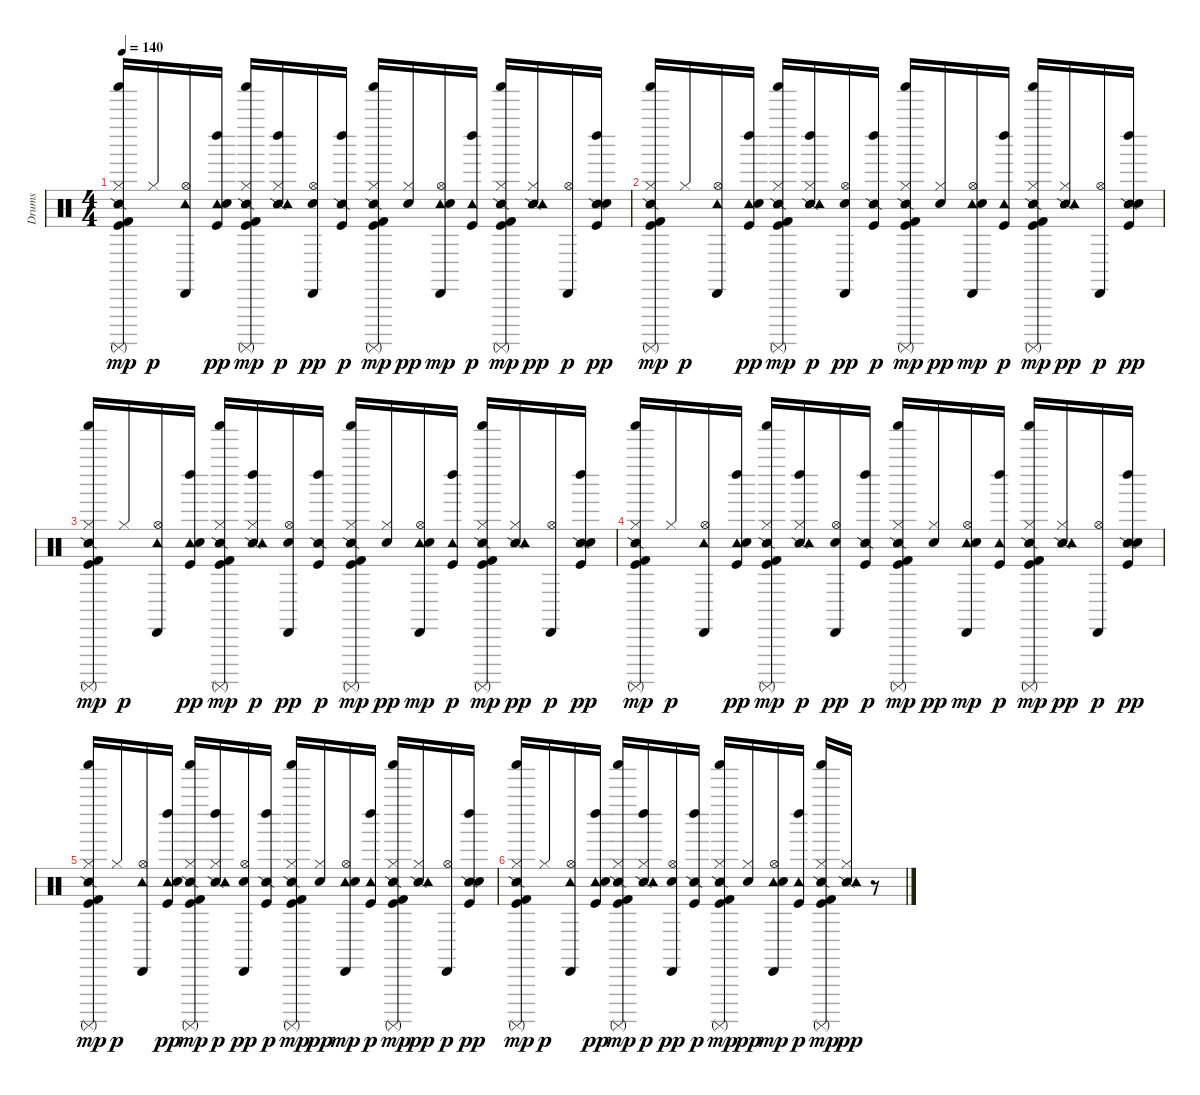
\track ("Drums" "Drums") {instrument percussion}
\staff {score}
\articulation defaults
\ts (4 4)
\tempo 140
\clef neutral
\ks c
("Snare (side stick) 2" "Kick (hit)" "Kick (hit) 2" "Hi-Hat (closed)" "Shaker (hit)" "Surdo (mute)").16{dy mp} "Hi-Hat (closed)".16{dy p} ("Hi-Hat (open)" "Tambourine (hit)" "Cabasa (hit)").16 ("Kick (hit)" "Tambourine (hit)" "Left Maraca (hit)" "Electric Snare (hit)").16{dy pp} ("Snare (side stick) 2" "Kick (hit)" "Kick (hit) 2" "Hi-Hat (closed)" "Shaker (hit)" "Surdo (mute)").16{dy mp} ("Snare (side stick) 2" "Hi-Hat (closed)" "Tambourine (hit)" "Left Maraca (hit)").16{dy p} ("Hi-Hat (open)" "Cabasa (hit)" "Snare (hit) 2").16{dy pp} ("Snare (side stick) 2" "Kick (hit)" "Left Maraca (hit)").16{dy p} ("Snare (side stick) 2" "Kick (hit)" "Kick (hit) 2" "Hi-Hat (closed)" "Shaker (hit)" "Surdo (mute)").16{dy mp} ("Hi-Hat (closed)" "Electric Snare (hit)").16{dy pp} ("Hi-Hat (open)" "Tambourine (hit)" "Cabasa (hit)" "Snare (hit) 2").16{dy mp} ("Kick (hit)" "Tambourine (hit)" "Left Maraca (hit)").16{dy p} ("Snare (side stick) 2" "Kick (hit)" "Kick (hit) 2" "Hi-Hat (closed)" "Shaker (hit)" "Surdo (mute)").16{dy mp} ("Snare (side stick) 2" "Hi-Hat (closed)" "Tambourine (hit)").16{dy pp} ("Hi-Hat (open)" "Cabasa (hit)").16{dy p} ("Snare (side stick) 2" "Kick (hit)" "Left Maraca (hit)" "Snare (hit) 2").16{dy pp} |
("Snare (side stick) 2" "Kick (hit)" "Kick (hit) 2" "Hi-Hat (closed)" "Shaker (hit)" "Surdo (mute)").16{dy mp} "Hi-Hat (closed)".16{dy p} ("Hi-Hat (open)" "Tambourine (hit)" "Cabasa (hit)").16 ("Kick (hit)" "Tambourine (hit)" "Left Maraca (hit)" "Electric Snare (hit)").16{dy pp} ("Snare (side stick) 2" "Kick (hit)" "Kick (hit) 2" "Hi-Hat (closed)" "Shaker (hit)" "Surdo (mute)").16{dy mp} ("Snare (side stick) 2" "Hi-Hat (closed)" "Tambourine (hit)" "Left Maraca (hit)").16{dy p} ("Hi-Hat (open)" "Cabasa (hit)" "Snare (hit) 2").16{dy pp} ("Snare (side stick) 2" "Kick (hit)" "Left Maraca (hit)").16{dy p} ("Snare (side stick) 2" "Kick (hit)" "Kick (hit) 2" "Hi-Hat (closed)" "Shaker (hit)" "Surdo (mute)").16{dy mp} ("Hi-Hat (closed)" "Electric Snare (hit)").16{dy pp} ("Hi-Hat (open)" "Tambourine (hit)" "Cabasa (hit)" "Snare (hit) 2").16{dy mp} ("Kick (hit)" "Tambourine (hit)" "Left Maraca (hit)").16{dy p} ("Snare (side stick) 2" "Kick (hit)" "Kick (hit) 2" "Hi-Hat (closed)" "Shaker (hit)" "Surdo (mute)").16{dy mp} ("Snare (side stick) 2" "Hi-Hat (closed)" "Tambourine (hit)").16{dy pp} ("Hi-Hat (open)" "Cabasa (hit)").16{dy p} ("Snare (side stick) 2" "Kick (hit)" "Left Maraca (hit)" "Snare (hit) 2").16{dy pp} |
("Snare (side stick) 2" "Kick (hit)" "Kick (hit) 2" "Hi-Hat (closed)" "Shaker (hit)" "Surdo (mute)").16{dy mp} "Hi-Hat (closed)".16{dy p} ("Hi-Hat (open)" "Tambourine (hit)" "Cabasa (hit)").16 ("Kick (hit)" "Tambourine (hit)" "Left Maraca (hit)" "Electric Snare (hit)").16{dy pp} ("Snare (side stick) 2" "Kick (hit)" "Kick (hit) 2" "Hi-Hat (closed)" "Shaker (hit)" "Surdo (mute)").16{dy mp} ("Snare (side stick) 2" "Hi-Hat (closed)" "Tambourine (hit)" "Left Maraca (hit)").16{dy p} ("Hi-Hat (open)" "Cabasa (hit)" "Snare (hit) 2").16{dy pp} ("Snare (side stick) 2" "Kick (hit)" "Left Maraca (hit)").16{dy p} ("Snare (side stick) 2" "Kick (hit)" "Kick (hit) 2" "Hi-Hat (closed)" "Shaker (hit)" "Surdo (mute)").16{dy mp} ("Hi-Hat (closed)" "Electric Snare (hit)").16{dy pp} ("Hi-Hat (open)" "Tambourine (hit)" "Cabasa (hit)" "Snare (hit) 2").16{dy mp} ("Kick (hit)" "Tambourine (hit)" "Left Maraca (hit)").16{dy p} ("Snare (side stick) 2" "Kick (hit)" "Kick (hit) 2" "Hi-Hat (closed)" "Shaker (hit)" "Surdo (mute)").16{dy mp} ("Snare (side stick) 2" "Hi-Hat (closed)" "Tambourine (hit)").16{dy pp} ("Hi-Hat (open)" "Cabasa (hit)").16{dy p} ("Snare (side stick) 2" "Kick (hit)" "Left Maraca (hit)" "Snare (hit) 2").16{dy pp} |
("Snare (side stick) 2" "Kick (hit)" "Kick (hit) 2" "Hi-Hat (closed)" "Shaker (hit)" "Surdo (mute)").16{dy mp volume 12} "Hi-Hat (closed)".16{dy p volume 12} ("Hi-Hat (open)" "Tambourine (hit)" "Cabasa (hit)").16{volume 12} ("Kick (hit)" "Tambourine (hit)" "Left Maraca (hit)" "Electric Snare (hit)").16{dy pp volume 11} ("Snare (side stick) 2" "Kick (hit)" "Kick (hit) 2" "Hi-Hat (closed)" "Shaker (hit)" "Surdo (mute)").16{dy mp volume 11} ("Snare (side stick) 2" "Hi-Hat (closed)" "Tambourine (hit)" "Left Maraca (hit)").16{dy p volume 11} ("Hi-Hat (open)" "Cabasa (hit)" "Snare (hit) 2").16{dy pp volume 11} ("Snare (side stick) 2" "Kick (hit)" "Left Maraca (hit)").16{dy p volume 10} ("Snare (side stick) 2" "Kick (hit)" "Kick (hit) 2" "Hi-Hat (closed)" "Shaker (hit)" "Surdo (mute)").16{dy mp volume 10} ("Hi-Hat (closed)" "Electric Snare (hit)").16{dy pp volume 10} ("Hi-Hat (open)" "Tambourine (hit)" "Cabasa (hit)" "Snare (hit) 2").16{dy mp volume 10} ("Kick (hit)" "Tambourine (hit)" "Left Maraca (hit)").16{dy p volume 9} ("Snare (side stick) 2" "Kick (hit)" "Kick (hit) 2" "Hi-Hat (closed)" "Shaker (hit)" "Surdo (mute)").16{dy mp volume 9} ("Snare (side stick) 2" "Hi-Hat (closed)" "Tambourine (hit)").16{dy pp volume 9} ("Hi-Hat (open)" "Cabasa (hit)").16{dy p volume 9} ("Snare (side stick) 2" "Kick (hit)" "Left Maraca (hit)" "Snare (hit) 2").16{dy pp volume 8} |
("Snare (side stick) 2" "Kick (hit)" "Kick (hit) 2" "Hi-Hat (closed)" "Shaker (hit)" "Surdo (mute)").16{dy mp volume 8} "Hi-Hat (closed)".16{dy p volume 8} ("Hi-Hat (open)" "Tambourine (hit)" "Cabasa (hit)").16{volume 8} ("Kick (hit)" "Tambourine (hit)" "Left Maraca (hit)" "Electric Snare (hit)").16{dy pp volume 7} ("Snare (side stick) 2" "Kick (hit)" "Kick (hit) 2" "Hi-Hat (closed)" "Shaker (hit)" "Surdo (mute)").16{dy mp volume 7} ("Snare (side stick) 2" "Hi-Hat (closed)" "Tambourine (hit)" "Left Maraca (hit)").16{dy p volume 7} ("Hi-Hat (open)" "Cabasa (hit)" "Snare (hit) 2").16{dy pp volume 7} ("Snare (side stick) 2" "Kick (hit)" "Left Maraca (hit)").16{dy p volume 6} ("Snare (side stick) 2" "Kick (hit)" "Kick (hit) 2" "Hi-Hat (closed)" "Shaker (hit)" "Surdo (mute)").16{dy mp volume 6} ("Hi-Hat (closed)" "Electric Snare (hit)").16{dy pp volume 6} ("Hi-Hat (open)" "Tambourine (hit)" "Cabasa (hit)" "Snare (hit) 2").16{dy mp volume 5} ("Kick (hit)" "Tambourine (hit)" "Left Maraca (hit)").16{dy p volume 5} ("Snare (side stick) 2" "Kick (hit)" "Kick (hit) 2" "Hi-Hat (closed)" "Shaker (hit)" "Surdo (mute)").16{dy mp volume 5} ("Snare (side stick) 2" "Hi-Hat (closed)" "Tambourine (hit)").16{dy pp volume 5} ("Hi-Hat (open)" "Cabasa (hit)").16{dy p volume 4} ("Snare (side stick) 2" "Kick (hit)" "Left Maraca (hit)" "Snare (hit) 2").16{dy pp volume 4} |
("Snare (side stick) 2" "Kick (hit)" "Kick (hit) 2" "Hi-Hat (closed)" "Shaker (hit)" "Surdo (mute)").16{dy mp volume 4} "Hi-Hat (closed)".16{dy p volume 4} ("Hi-Hat (open)" "Tambourine (hit)" "Cabasa (hit)").16{volume 3} ("Kick (hit)" "Tambourine (hit)" "Left Maraca (hit)" "Electric Snare (hit)").16{dy pp volume 3} ("Snare (side stick) 2" "Kick (hit)" "Kick (hit) 2" "Hi-Hat (closed)" "Shaker (hit)" "Surdo (mute)").16{dy mp volume 3} ("Snare (side stick) 2" "Hi-Hat (closed)" "Tambourine (hit)" "Left Maraca (hit)").16{dy p volume 2} ("Hi-Hat (open)" "Cabasa (hit)" "Snare (hit) 2").16{dy pp volume 2} ("Snare (side stick) 2" "Kick (hit)" "Left Maraca (hit)").16{dy p volume 2} ("Snare (side stick) 2" "Kick (hit)" "Kick (hit) 2" "Hi-Hat (closed)" "Shaker (hit)" "Surdo (mute)").16{dy mp volume 2} ("Hi-Hat (closed)" "Electric Snare (hit)").16{dy pp volume 2} ("Hi-Hat (open)" "Tambourine (hit)" "Cabasa (hit)" "Snare (hit) 2").16{dy mp volume 1} ("Kick (hit)" "Tambourine (hit)" "Left Maraca (hit)").16{dy p volume 1} ("Snare (side stick) 2" "Kick (hit)" "Kick (hit) 2" "Hi-Hat (closed)" "Shaker (hit)" "Surdo (mute)").16{dy mp volume 1} ("Snare (side stick) 2" "Hi-Hat (closed)" "Tambourine (hit)").16{dy pp volume 0} r.8
